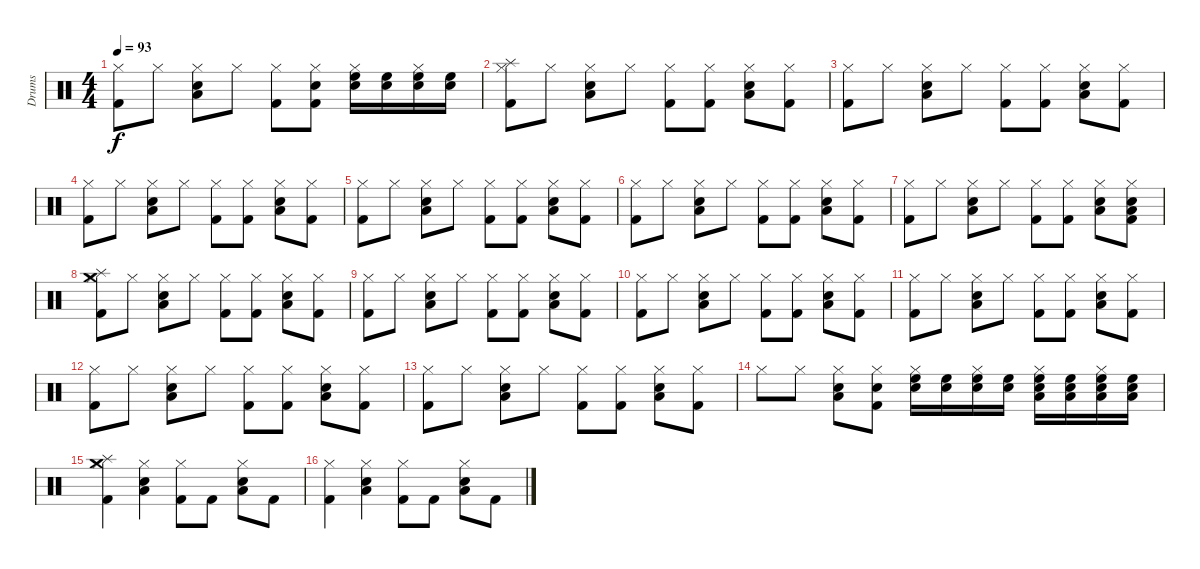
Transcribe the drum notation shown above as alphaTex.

\track ("Drums" "Drums") {instrument percussion}
\staff {score}
\articulation defaults
\ts (4 4)
\tempo 93
\clef neutral
\ks c
("Hi-Hat (closed)" "Kick (hit) 2").8{dy f} "Hi-Hat (closed)".8 ("Hi-Hat (closed)" "Snare (hit) 2" "Low Tom (hit)").8 "Hi-Hat (closed)".8 ("Hi-Hat (closed)" "Kick (hit) 2").8 ("Hi-Hat (closed)" "Kick (hit) 2" "Snare (hit) 2").8 ("Hi-Hat (closed)" "Snare (hit) 2" "High Floor Tom (hit)").16 ("Snare (hit) 2" "High Floor Tom (hit)").16 ("Hi-Hat (closed)" "Snare (hit) 2" "High Floor Tom (hit)").16 ("Snare (hit) 2" "High Floor Tom (hit)").16 |
("Hi-Hat (closed)" "Kick (hit) 2" "Splash (hit)").8 "Hi-Hat (closed)".8 ("Hi-Hat (closed)" "Snare (hit) 2" "Low Tom (hit)").8 "Hi-Hat (closed)".8 ("Hi-Hat (closed)" "Kick (hit) 2").8 ("Hi-Hat (closed)" "Kick (hit) 2").8 ("Hi-Hat (closed)" "Snare (hit) 2" "Low Tom (hit)").8 ("Hi-Hat (closed)" "Kick (hit) 2").8 |
("Hi-Hat (closed)" "Kick (hit) 2").8 "Hi-Hat (closed)".8 ("Hi-Hat (closed)" "Snare (hit) 2" "Low Tom (hit)").8 "Hi-Hat (closed)".8 ("Hi-Hat (closed)" "Kick (hit) 2").8 ("Hi-Hat (closed)" "Kick (hit) 2").8 ("Hi-Hat (closed)" "Snare (hit) 2" "Low Tom (hit)").8 ("Hi-Hat (closed)" "Kick (hit) 2").8 |
("Hi-Hat (closed)" "Kick (hit) 2").8 "Hi-Hat (closed)".8 ("Hi-Hat (closed)" "Snare (hit) 2" "Low Tom (hit)").8 "Hi-Hat (closed)".8 ("Hi-Hat (closed)" "Kick (hit) 2").8 ("Hi-Hat (closed)" "Kick (hit) 2").8 ("Hi-Hat (closed)" "Snare (hit) 2" "Low Tom (hit)").8 ("Hi-Hat (closed)" "Kick (hit) 2").8 |
("Hi-Hat (closed)" "Kick (hit) 2").8 "Hi-Hat (closed)".8 ("Hi-Hat (closed)" "Snare (hit) 2" "Low Tom (hit)").8 "Hi-Hat (closed)".8 ("Hi-Hat (closed)" "Kick (hit) 2").8 ("Hi-Hat (closed)" "Kick (hit) 2").8 ("Hi-Hat (closed)" "Snare (hit) 2" "Low Tom (hit)").8 ("Hi-Hat (closed)" "Kick (hit) 2").8 |
("Hi-Hat (closed)" "Kick (hit) 2").8 "Hi-Hat (closed)".8 ("Hi-Hat (closed)" "Snare (hit) 2" "Low Tom (hit)").8 "Hi-Hat (closed)".8 ("Hi-Hat (closed)" "Kick (hit) 2").8 ("Hi-Hat (closed)" "Kick (hit) 2").8 ("Hi-Hat (closed)" "Snare (hit) 2" "Low Tom (hit)").8 ("Hi-Hat (closed)" "Kick (hit) 2").8 |
("Hi-Hat (closed)" "Kick (hit) 2").8 "Hi-Hat (closed)".8 ("Hi-Hat (closed)" "Snare (hit) 2" "Low Tom (hit)").8 "Hi-Hat (closed)".8 ("Hi-Hat (closed)" "Kick (hit) 2").8 ("Hi-Hat (closed)" "Kick (hit) 2").8 ("Hi-Hat (closed)" "Snare (hit) 2" "Low Tom (hit)").8 ("Hi-Hat (closed)" "Kick (hit) 2" "Snare (hit) 2" "Low Tom (hit)").8 |
("Hi-Hat (closed)" "Kick (hit) 2" "Splash (hit)" "Crash medium (hit)").8 "Hi-Hat (closed)".8 ("Hi-Hat (closed)" "Snare (hit) 2" "Low Tom (hit)").8 "Hi-Hat (closed)".8 ("Hi-Hat (closed)" "Kick (hit) 2").8 ("Hi-Hat (closed)" "Kick (hit) 2").8 ("Hi-Hat (closed)" "Snare (hit) 2" "Low Tom (hit)").8 ("Hi-Hat (closed)" "Kick (hit) 2").8 |
("Hi-Hat (closed)" "Kick (hit) 2").8 "Hi-Hat (closed)".8 ("Hi-Hat (closed)" "Snare (hit) 2" "Low Tom (hit)").8 "Hi-Hat (closed)".8 ("Hi-Hat (closed)" "Kick (hit) 2").8 ("Hi-Hat (closed)" "Kick (hit) 2").8 ("Hi-Hat (closed)" "Snare (hit) 2" "Low Tom (hit)").8 ("Hi-Hat (closed)" "Kick (hit) 2").8 |
("Hi-Hat (closed)" "Kick (hit) 2").8 "Hi-Hat (closed)".8 ("Hi-Hat (closed)" "Snare (hit) 2" "Low Tom (hit)").8 "Hi-Hat (closed)".8 ("Hi-Hat (closed)" "Kick (hit) 2").8 ("Hi-Hat (closed)" "Kick (hit) 2").8 ("Hi-Hat (closed)" "Snare (hit) 2" "Low Tom (hit)").8 ("Hi-Hat (closed)" "Kick (hit) 2").8 |
("Hi-Hat (closed)" "Kick (hit) 2").8 "Hi-Hat (closed)".8 ("Hi-Hat (closed)" "Snare (hit) 2" "Low Tom (hit)").8 "Hi-Hat (closed)".8 ("Hi-Hat (closed)" "Kick (hit) 2").8 ("Hi-Hat (closed)" "Kick (hit) 2").8 ("Hi-Hat (closed)" "Snare (hit) 2" "Low Tom (hit)").8 ("Hi-Hat (closed)" "Kick (hit) 2").8 |
("Hi-Hat (closed)" "Kick (hit) 2").8 "Hi-Hat (closed)".8 ("Hi-Hat (closed)" "Snare (hit) 2" "Low Tom (hit)").8 "Hi-Hat (closed)".8 ("Hi-Hat (closed)" "Kick (hit) 2").8 ("Hi-Hat (closed)" "Kick (hit) 2").8 ("Hi-Hat (closed)" "Snare (hit) 2" "Low Tom (hit)").8 ("Hi-Hat (closed)" "Kick (hit) 2").8 |
("Hi-Hat (closed)" "Kick (hit) 2").8 "Hi-Hat (closed)".8 ("Hi-Hat (closed)" "Snare (hit) 2" "Low Tom (hit)").8 "Hi-Hat (closed)".8 ("Hi-Hat (closed)" "Kick (hit) 2").8 ("Hi-Hat (closed)" "Kick (hit) 2").8 ("Hi-Hat (closed)" "Snare (hit) 2" "Low Tom (hit)").8 ("Hi-Hat (closed)" "Kick (hit) 2").8 |
"Hi-Hat (closed)".8 "Hi-Hat (closed)".8 ("Hi-Hat (closed)" "Snare (hit) 2" "Low Tom (hit)").8 ("Hi-Hat (closed)" "Kick (hit) 2" "Snare (hit) 2").8 ("Hi-Hat (closed)" "High Floor Tom (hit)" "Snare (hit) 2").16 ("High Floor Tom (hit)" "Snare (hit) 2").16 ("Hi-Hat (closed)" "High Floor Tom (hit)" "Snare (hit) 2").16 ("High Floor Tom (hit)" "Snare (hit) 2").16 ("Hi-Hat (closed)" "High Floor Tom (hit)" "Snare (hit) 2" "Low Tom (hit)").16 ("High Floor Tom (hit)" "Snare (hit) 2" "Low Tom (hit)").16 ("Hi-Hat (closed)" "High Floor Tom (hit)" "Snare (hit) 2" "Low Tom (hit)").16 ("High Floor Tom (hit)" "Snare (hit) 2" "Low Tom (hit)").16 |
("Hi-Hat (closed)" "Kick (hit) 2" "Crash medium (hit)" "Splash (hit)").4 ("Hi-Hat (closed)" "Snare (hit) 2" "Low Tom (hit)").4 ("Hi-Hat (closed)" "Kick (hit) 2").8 "Kick (hit) 2".8 ("Hi-Hat (closed)" "Snare (hit) 2" "Low Tom (hit)").8 "Kick (hit) 2".8 |
("Hi-Hat (closed)" "Kick (hit) 2").4 ("Hi-Hat (closed)" "Snare (hit) 2" "Low Tom (hit)").4 ("Hi-Hat (closed)" "Kick (hit) 2").8 "Kick (hit) 2".8 ("Hi-Hat (closed)" "Snare (hit) 2" "Low Tom (hit)").8 "Kick (hit) 2".8
